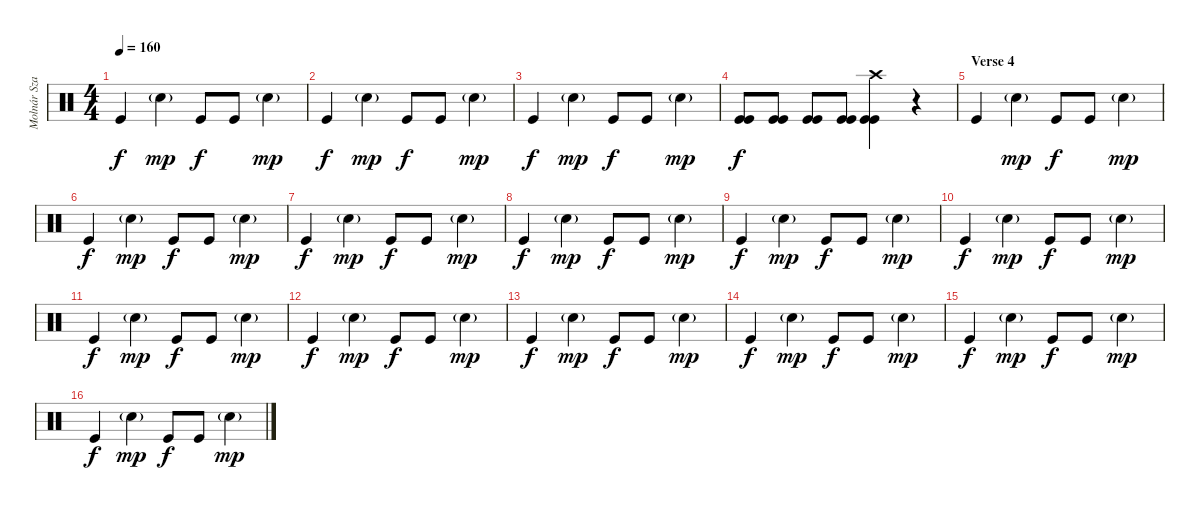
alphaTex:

\track ("Molnár Szabolcs" "Molnár Sza") {instrument percussion}
\staff {score}
\articulation defaults
\ts (4 4)
\tempo 160
\clef neutral
\ks c "Kick (hit)".4{dy f} "Snare (hit) 2"{g}.4{dy mp} "Kick (hit)".8{dy f} "Kick (hit)".8 "Snare (hit) 2"{g}.4{dy mp}
|
"Kick (hit)".4{dy f} "Snare (hit) 2"{g}.4{dy mp} "Kick (hit)".8{dy f} "Kick (hit)".8 "Snare (hit) 2"{g}.4{dy mp} |
"Kick (hit)".4{dy f} "Snare (hit) 2"{g}.4{dy mp} "Kick (hit)".8{dy f} "Kick (hit)".8 "Snare (hit) 2"{g}.4{dy mp} |
("Kick (hit)" "Kick (hit)").8{dy f} ("Kick (hit)" "Kick (hit)").8 ("Kick (hit)" "Kick (hit)").8 ("Kick (hit)" "Kick (hit)").8 ("Kick (hit)" "Kick (hit)" "Crash high (hit)").4 r.4 |
\section ("" "Verse 4")
"Kick (hit)".4 "Snare (hit) 2"{g}.4{dy mp} "Kick (hit)".8{dy f} "Kick (hit)".8 "Snare (hit) 2"{g}.4{dy mp} |
"Kick (hit)".4{dy f} "Snare (hit) 2"{g}.4{dy mp} "Kick (hit)".8{dy f} "Kick (hit)".8 "Snare (hit) 2"{g}.4{dy mp} |
"Kick (hit)".4{dy f} "Snare (hit) 2"{g}.4{dy mp} "Kick (hit)".8{dy f} "Kick (hit)".8 "Snare (hit) 2"{g}.4{dy mp} |
"Kick (hit)".4{dy f} "Snare (hit) 2"{g}.4{dy mp} "Kick (hit)".8{dy f} "Kick (hit)".8 "Snare (hit) 2"{g}.4{dy mp} |
"Kick (hit)".4{dy f} "Snare (hit) 2"{g}.4{dy mp} "Kick (hit)".8{dy f} "Kick (hit)".8 "Snare (hit) 2"{g}.4{dy mp} |
"Kick (hit)".4{dy f} "Snare (hit) 2"{g}.4{dy mp} "Kick (hit)".8{dy f} "Kick (hit)".8 "Snare (hit) 2"{g}.4{dy mp} |
"Kick (hit)".4{dy f} "Snare (hit) 2"{g}.4{dy mp} "Kick (hit)".8{dy f} "Kick (hit)".8 "Snare (hit) 2"{g}.4{dy mp} |
"Kick (hit)".4{dy f} "Snare (hit) 2"{g}.4{dy mp} "Kick (hit)".8{dy f} "Kick (hit)".8 "Snare (hit) 2"{g}.4{dy mp} |
"Kick (hit)".4{dy f} "Snare (hit) 2"{g}.4{dy mp} "Kick (hit)".8{dy f} "Kick (hit)".8 "Snare (hit) 2"{g}.4{dy mp} |
"Kick (hit)".4{dy f} "Snare (hit) 2"{g}.4{dy mp} "Kick (hit)".8{dy f} "Kick (hit)".8 "Snare (hit) 2"{g}.4{dy mp} |
"Kick (hit)".4{dy f} "Snare (hit) 2"{g}.4{dy mp} "Kick (hit)".8{dy f} "Kick (hit)".8 "Snare (hit) 2"{g}.4{dy mp} |
"Kick (hit)".4{dy f} "Snare (hit) 2"{g}.4{dy mp} "Kick (hit)".8{dy f} "Kick (hit)".8 "Snare (hit) 2"{g}.4{dy mp}
